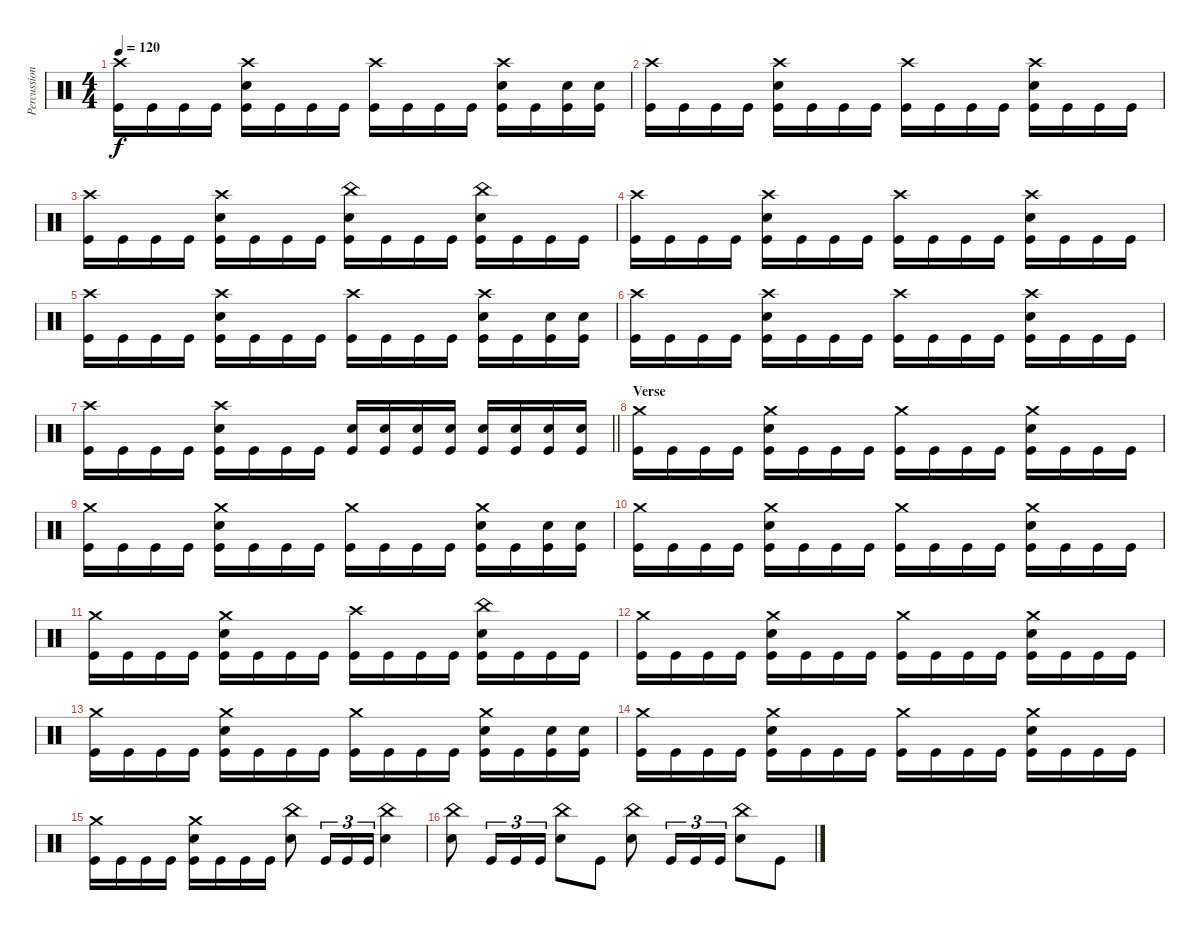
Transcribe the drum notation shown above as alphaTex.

\track ("Percussion" "Percussion") {instrument percussion}
\staff {score}
\articulation defaults
\ts (4 4)
\tempo 120
\clef neutral
\ks c
("Crash high (hit)" "Kick (hit)").16{dy f} "Kick (hit)".16 "Kick (hit)".16 "Kick (hit)".16 ("Crash high (hit)" "Snare (hit) 2" "Kick (hit)").16 "Kick (hit)".16 "Kick (hit)".16 "Kick (hit)".16 ("Crash high (hit)" "Kick (hit)").16 "Kick (hit)".16 "Kick (hit)".16 "Kick (hit)".16 ("Crash high (hit)" "Snare (hit) 2" "Kick (hit)").16 "Kick (hit)".16 ("Snare (hit) 2" "Kick (hit)").16 ("Snare (hit) 2" "Kick (hit)").16 |
("Crash high (hit)" "Kick (hit)").16 "Kick (hit)".16 "Kick (hit)".16 "Kick (hit)".16 ("Crash high (hit)" "Snare (hit) 2" "Kick (hit)").16 "Kick (hit)".16 "Kick (hit)".16 "Kick (hit)".16 ("Crash high (hit)" "Kick (hit)").16 "Kick (hit)".16 "Kick (hit)".16 "Kick (hit)".16 ("Crash high (hit)" "Snare (hit) 2" "Kick (hit)").16 "Kick (hit)".16 "Kick (hit)".16 "Kick (hit)".16 |
("Crash high (hit)" "Kick (hit)").16 "Kick (hit)".16 "Kick (hit)".16 "Kick (hit)".16 ("Crash high (hit)" "Snare (hit) 2" "Kick (hit)").16 "Kick (hit)".16 "Kick (hit)".16 "Kick (hit)".16 ("China (hit)" "Snare (hit) 2" "Kick (hit)").16 "Kick (hit)".16 "Kick (hit)".16 "Kick (hit)".16 ("China (hit)" "Snare (hit) 2" "Kick (hit)").16 "Kick (hit)".16 "Kick (hit)".16 "Kick (hit)".16 |
("Crash high (hit)" "Kick (hit)").16 "Kick (hit)".16 "Kick (hit)".16 "Kick (hit)".16 ("Crash high (hit)" "Snare (hit) 2" "Kick (hit)").16 "Kick (hit)".16 "Kick (hit)".16 "Kick (hit)".16 ("Crash high (hit)" "Kick (hit)").16 "Kick (hit)".16 "Kick (hit)".16 "Kick (hit)".16 ("Crash high (hit)" "Snare (hit) 2" "Kick (hit)").16 "Kick (hit)".16 "Kick (hit)".16 "Kick (hit)".16 |
("Crash high (hit)" "Kick (hit)").16 "Kick (hit)".16 "Kick (hit)".16 "Kick (hit)".16 ("Crash high (hit)" "Snare (hit) 2" "Kick (hit)").16 "Kick (hit)".16 "Kick (hit)".16 "Kick (hit)".16 ("Crash high (hit)" "Kick (hit)").16 "Kick (hit)".16 "Kick (hit)".16 "Kick (hit)".16 ("Crash high (hit)" "Snare (hit) 2" "Kick (hit)").16 "Kick (hit)".16 ("Snare (hit) 2" "Kick (hit)").16 ("Snare (hit) 2" "Kick (hit)").16 |
("Crash high (hit)" "Kick (hit)").16 "Kick (hit)".16 "Kick (hit)".16 "Kick (hit)".16 ("Crash high (hit)" "Snare (hit) 2" "Kick (hit)").16 "Kick (hit)".16 "Kick (hit)".16 "Kick (hit)".16 ("Crash high (hit)" "Kick (hit)").16 "Kick (hit)".16 "Kick (hit)".16 "Kick (hit)".16 ("Crash high (hit)" "Snare (hit) 2" "Kick (hit)").16 "Kick (hit)".16 "Kick (hit)".16 "Kick (hit)".16 |
\barLineRight lightlight
("Crash high (hit)" "Kick (hit)").16 "Kick (hit)".16 "Kick (hit)".16 "Kick (hit)".16 ("Crash high (hit)" "Snare (hit) 2" "Kick (hit)").16 "Kick (hit)".16 "Kick (hit)".16 "Kick (hit)".16 ("Snare (hit) 2" "Kick (hit)").16 ("Snare (hit) 2" "Kick (hit)").16 ("Snare (hit) 2" "Kick (hit)").16 ("Snare (hit) 2" "Kick (hit)").16 ("Snare (hit) 2" "Kick (hit)").16 ("Snare (hit) 2" "Kick (hit)").16 ("Snare (hit) 2" "Kick (hit)").16 ("Snare (hit) 2" "Kick (hit)").16 |
\section ("" "Verse")
("Crash medium (hit)" "Kick (hit)").16 "Kick (hit)".16 "Kick (hit)".16 "Kick (hit)".16 ("Crash medium (hit)" "Snare (hit) 2" "Kick (hit)").16 "Kick (hit)".16 "Kick (hit)".16 "Kick (hit)".16 ("Crash medium (hit)" "Kick (hit)").16 "Kick (hit)".16 "Kick (hit)".16 "Kick (hit)".16 ("Crash medium (hit)" "Snare (hit) 2" "Kick (hit)").16 "Kick (hit)".16 "Kick (hit)".16 "Kick (hit)".16 |
("Crash medium (hit)" "Kick (hit)").16 "Kick (hit)".16 "Kick (hit)".16 "Kick (hit)".16 ("Crash medium (hit)" "Snare (hit) 2" "Kick (hit)").16 "Kick (hit)".16 "Kick (hit)".16 "Kick (hit)".16 ("Crash medium (hit)" "Kick (hit)").16 "Kick (hit)".16 "Kick (hit)".16 "Kick (hit)".16 ("Crash medium (hit)" "Snare (hit) 2" "Kick (hit)").16 "Kick (hit)".16 ("Snare (hit) 2" "Kick (hit)").16 ("Snare (hit) 2" "Kick (hit)").16 |
("Crash medium (hit)" "Kick (hit)").16 "Kick (hit)".16 "Kick (hit)".16 "Kick (hit)".16 ("Crash medium (hit)" "Snare (hit) 2" "Kick (hit)").16 "Kick (hit)".16 "Kick (hit)".16 "Kick (hit)".16 ("Crash medium (hit)" "Kick (hit)").16 "Kick (hit)".16 "Kick (hit)".16 "Kick (hit)".16 ("Crash medium (hit)" "Snare (hit) 2" "Kick (hit)").16 "Kick (hit)".16 "Kick (hit)".16 "Kick (hit)".16 |
("Crash medium (hit)" "Kick (hit)").16 "Kick (hit)".16 "Kick (hit)".16 "Kick (hit)".16 ("Crash medium (hit)" "Snare (hit) 2" "Kick (hit)").16 "Kick (hit)".16 "Kick (hit)".16 "Kick (hit)".16 ("Crash high (hit)" "Kick (hit)").16 "Kick (hit)".16 "Kick (hit)".16 "Kick (hit)".16 ("China (hit)" "Snare (hit) 2" "Kick (hit)").16 "Kick (hit)".16 "Kick (hit)".16 "Kick (hit)".16 |
("Crash medium (hit)" "Kick (hit)").16 "Kick (hit)".16 "Kick (hit)".16 "Kick (hit)".16 ("Crash medium (hit)" "Snare (hit) 2" "Kick (hit)").16 "Kick (hit)".16 "Kick (hit)".16 "Kick (hit)".16 ("Crash medium (hit)" "Kick (hit)").16 "Kick (hit)".16 "Kick (hit)".16 "Kick (hit)".16 ("Crash medium (hit)" "Snare (hit) 2" "Kick (hit)").16 "Kick (hit)".16 "Kick (hit)".16 "Kick (hit)".16 |
("Crash medium (hit)" "Kick (hit)").16 "Kick (hit)".16 "Kick (hit)".16 "Kick (hit)".16 ("Crash medium (hit)" "Snare (hit) 2" "Kick (hit)").16 "Kick (hit)".16 "Kick (hit)".16 "Kick (hit)".16 ("Crash medium (hit)" "Kick (hit)").16 "Kick (hit)".16 "Kick (hit)".16 "Kick (hit)".16 ("Crash medium (hit)" "Snare (hit) 2" "Kick (hit)").16 "Kick (hit)".16 ("Snare (hit) 2" "Kick (hit)").16 ("Snare (hit) 2" "Kick (hit)").16 |
("Crash medium (hit)" "Kick (hit)").16 "Kick (hit)".16 "Kick (hit)".16 "Kick (hit)".16 ("Crash medium (hit)" "Snare (hit) 2" "Kick (hit)").16 "Kick (hit)".16 "Kick (hit)".16 "Kick (hit)".16 ("Crash medium (hit)" "Kick (hit)").16 "Kick (hit)".16 "Kick (hit)".16 "Kick (hit)".16 ("Crash medium (hit)" "Snare (hit) 2" "Kick (hit)").16 "Kick (hit)".16 "Kick (hit)".16 "Kick (hit)".16 |
("Crash medium (hit)" "Kick (hit)").16 "Kick (hit)".16 "Kick (hit)".16 "Kick (hit)".16 ("Crash medium (hit)" "Snare (hit) 2" "Kick (hit)").16 "Kick (hit)".16 "Kick (hit)".16 "Kick (hit)".16 ("China (hit)" "Snare (hit) 2").8 "Kick (hit)".16{tu (3 2)} "Kick (hit)".16{tu (3 2)} "Kick (hit)".16{tu (3 2)} ("China (hit)" "Snare (hit) 2").4 |
("China (hit)" "Snare (hit) 2").8 "Kick (hit)".16{tu (3 2)} "Kick (hit)".16{tu (3 2)} "Kick (hit)".16{tu (3 2)} ("China (hit)" "Snare (hit) 2").8 "Kick (hit)".8 ("China (hit)" "Snare (hit) 2").8 "Kick (hit)".16{tu (3 2)} "Kick (hit)".16{tu (3 2)} "Kick (hit)".16{tu (3 2)} ("China (hit)" "Snare (hit) 2").8 "Kick (hit)".8
